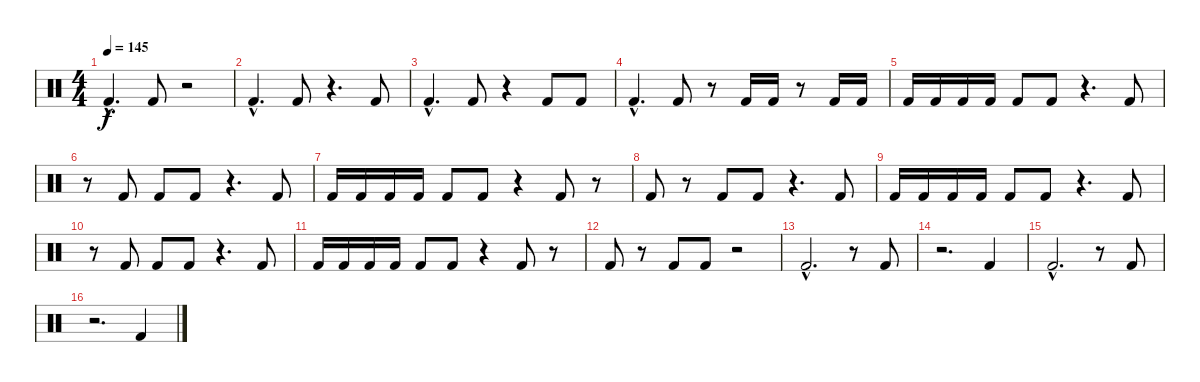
\track "" {instrument percussion}
\staff {score}
\articulation defaults
\ts (4 4)
\tempo 145
\clef neutral
\ks c "Kick (hit) 2"{hac}.4{d dy f} "Kick (hit) 2".8
r.2 |
"Kick (hit) 2"{hac}.4{d} "Kick (hit) 2".8 r.4{d} "Kick (hit) 2".8 |
"Kick (hit) 2"{hac}.4{d} "Kick (hit) 2".8 r.4 "Kick (hit) 2".8 "Kick (hit) 2".8 |
"Kick (hit) 2"{hac}.4{d} "Kick (hit) 2".8 r.8 "Kick (hit) 2".16 "Kick (hit) 2".16 r.8 "Kick (hit) 2".16 "Kick (hit) 2".16 |
"Kick (hit) 2".16 "Kick (hit) 2".16 "Kick (hit) 2".16 "Kick (hit) 2".16 "Kick (hit) 2".8 "Kick (hit) 2".8 r.4{d} "Kick (hit) 2".8 |
r.8 "Kick (hit) 2".8 "Kick (hit) 2".8 "Kick (hit) 2".8 r.4{d} "Kick (hit) 2".8 |
"Kick (hit) 2".16 "Kick (hit) 2".16 "Kick (hit) 2".16 "Kick (hit) 2".16 "Kick (hit) 2".8 "Kick (hit) 2".8 r.4 "Kick (hit) 2".8 r.8 |
"Kick (hit) 2".8 r.8 "Kick (hit) 2".8 "Kick (hit) 2".8 r.4{d} "Kick (hit) 2".8 |
"Kick (hit) 2".16 "Kick (hit) 2".16 "Kick (hit) 2".16 "Kick (hit) 2".16 "Kick (hit) 2".8 "Kick (hit) 2".8 r.4{d} "Kick (hit) 2".8 |
r.8 "Kick (hit) 2".8 "Kick (hit) 2".8 "Kick (hit) 2".8 r.4{d} "Kick (hit) 2".8 |
"Kick (hit) 2".16 "Kick (hit) 2".16 "Kick (hit) 2".16 "Kick (hit) 2".16 "Kick (hit) 2".8 "Kick (hit) 2".8 r.4 "Kick (hit) 2".8 r.8 |
"Kick (hit) 2".8 r.8 "Kick (hit) 2".8 "Kick (hit) 2".8 r.2 |
"Kick (hit) 2"{hac}.2{d} r.8 "Kick (hit) 2".8 |
r.2{d} "Kick (hit) 2".4 |
"Kick (hit) 2"{hac}.2{d} r.8 "Kick (hit) 2".8 |
r.2{d} "Kick (hit) 2".4
